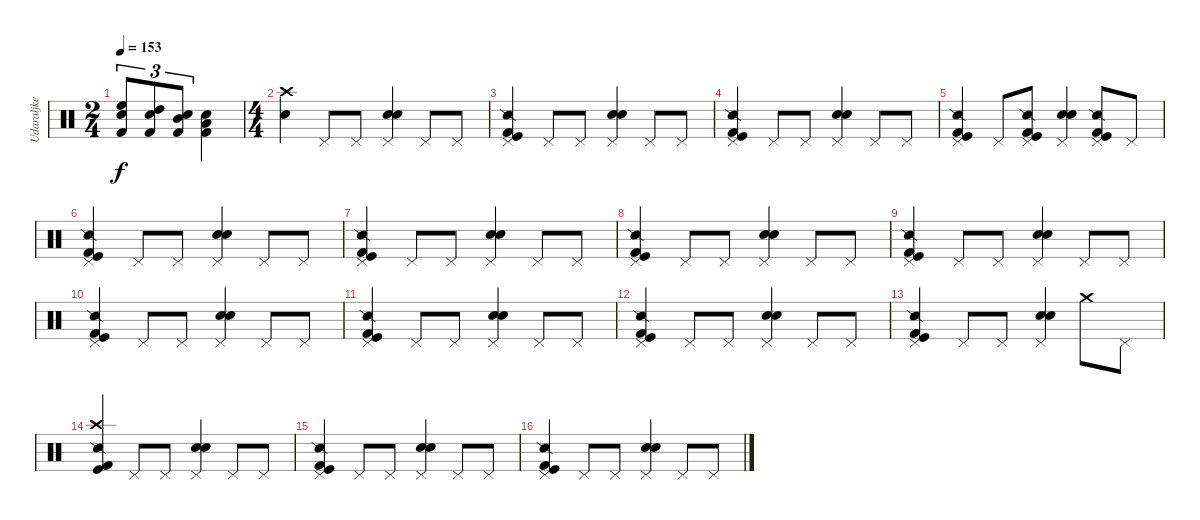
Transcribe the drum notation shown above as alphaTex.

\track ("Udaraljke" "Udaraljke") {instrument percussion}
\staff {score}
\articulation defaults
\ts (2 4)
\tempo 153
\clef neutral
\ks c
("Electric Snare (hit)" "High Floor Tom (hit)" "Kick (hit) 2").8{tu (3 2) dy f} ("Electric Snare (hit)" "High Tom (hit)" "Kick (hit) 2").8{tu (3 2)} ("Electric Snare (hit)" "Mid Tom (hit)" "Kick (hit) 2").8{tu (3 2)} ("Electric Snare (hit)" "Low Tom (hit)" "Kick (hit) 2").4 |
\ts (4 4)
("Crash high (hit)" "Snare (hit) 2").4 "Pedal Hi-Hat (hit)".8 "Pedal Hi-Hat (hit)".8 ("Pedal Hi-Hat (hit)" "Electric Snare (hit)" "Snare (hit) 2").4 "Pedal Hi-Hat (hit)".8 "Pedal Hi-Hat (hit)".8 |
("Pedal Hi-Hat (hit)" "Kick (hit) 2" "Kick (hit)" "Snare (side stick) 2").4 "Pedal Hi-Hat (hit)".8 "Pedal Hi-Hat (hit)".8 ("Pedal Hi-Hat (hit)" "Electric Snare (hit)" "Snare (hit) 2").4 "Pedal Hi-Hat (hit)".8 "Pedal Hi-Hat (hit)".8 |
("Pedal Hi-Hat (hit)" "Kick (hit) 2" "Kick (hit)" "Snare (side stick) 2").4 "Pedal Hi-Hat (hit)".8 "Pedal Hi-Hat (hit)".8 ("Pedal Hi-Hat (hit)" "Electric Snare (hit)" "Snare (hit) 2").4 "Pedal Hi-Hat (hit)".8 "Pedal Hi-Hat (hit)".8 |
("Pedal Hi-Hat (hit)" "Kick (hit) 2" "Kick (hit)" "Snare (side stick) 2").4 "Pedal Hi-Hat (hit)".8 ("Pedal Hi-Hat (hit)" "Kick (hit) 2" "Kick (hit)" "Snare (side stick) 2").8 ("Pedal Hi-Hat (hit)" "Electric Snare (hit)" "Snare (hit) 2").4 ("Pedal Hi-Hat (hit)" "Kick (hit) 2" "Kick (hit)" "Snare (side stick) 2").8 "Pedal Hi-Hat (hit)".8 |
("Pedal Hi-Hat (hit)" "Kick (hit) 2" "Kick (hit)" "Snare (side stick) 2").4 "Pedal Hi-Hat (hit)".8 "Pedal Hi-Hat (hit)".8 ("Pedal Hi-Hat (hit)" "Electric Snare (hit)" "Snare (hit) 2").4 "Pedal Hi-Hat (hit)".8 "Pedal Hi-Hat (hit)".8 |
("Pedal Hi-Hat (hit)" "Kick (hit) 2" "Kick (hit)" "Snare (side stick) 2").4 "Pedal Hi-Hat (hit)".8 "Pedal Hi-Hat (hit)".8 ("Pedal Hi-Hat (hit)" "Electric Snare (hit)" "Snare (hit) 2").4 "Pedal Hi-Hat (hit)".8 "Pedal Hi-Hat (hit)".8 |
("Pedal Hi-Hat (hit)" "Kick (hit) 2" "Kick (hit)" "Snare (side stick) 2").4 "Pedal Hi-Hat (hit)".8 "Pedal Hi-Hat (hit)".8 ("Pedal Hi-Hat (hit)" "Electric Snare (hit)" "Snare (hit) 2").4 "Pedal Hi-Hat (hit)".8 "Pedal Hi-Hat (hit)".8 |
("Pedal Hi-Hat (hit)" "Kick (hit) 2" "Kick (hit)" "Snare (side stick) 2").4 "Pedal Hi-Hat (hit)".8 "Pedal Hi-Hat (hit)".8 ("Pedal Hi-Hat (hit)" "Electric Snare (hit)" "Snare (hit) 2").4 "Pedal Hi-Hat (hit)".8 "Pedal Hi-Hat (hit)".8 |
("Pedal Hi-Hat (hit)" "Kick (hit) 2" "Kick (hit)" "Snare (side stick) 2").4 "Pedal Hi-Hat (hit)".8 "Pedal Hi-Hat (hit)".8 ("Pedal Hi-Hat (hit)" "Electric Snare (hit)" "Snare (hit) 2").4 "Pedal Hi-Hat (hit)".8 "Pedal Hi-Hat (hit)".8 |
("Pedal Hi-Hat (hit)" "Kick (hit) 2" "Kick (hit)" "Snare (side stick) 2").4 "Pedal Hi-Hat (hit)".8 "Pedal Hi-Hat (hit)".8 ("Pedal Hi-Hat (hit)" "Electric Snare (hit)" "Snare (hit) 2").4 "Pedal Hi-Hat (hit)".8 "Pedal Hi-Hat (hit)".8 |
("Pedal Hi-Hat (hit)" "Kick (hit) 2" "Kick (hit)" "Snare (side stick) 2").4 "Pedal Hi-Hat (hit)".8 "Pedal Hi-Hat (hit)".8 ("Pedal Hi-Hat (hit)" "Electric Snare (hit)" "Snare (hit) 2").4 "Pedal Hi-Hat (hit)".8 "Pedal Hi-Hat (hit)".8 |
("Pedal Hi-Hat (hit)" "Kick (hit) 2" "Kick (hit)" "Snare (side stick) 2").4 "Pedal Hi-Hat (hit)".8 "Pedal Hi-Hat (hit)".8 ("Pedal Hi-Hat (hit)" "Electric Snare (hit)" "Snare (hit) 2").4 "Crash medium (hit)".8 "Pedal Hi-Hat (hit)".8 |
("Crash high (hit)" "Kick (hit) 2" "Kick (hit)" "Snare (side stick) 2").4 "Pedal Hi-Hat (hit)".8 "Pedal Hi-Hat (hit)".8 ("Pedal Hi-Hat (hit)" "Electric Snare (hit)" "Snare (hit) 2").4 "Pedal Hi-Hat (hit)".8 "Pedal Hi-Hat (hit)".8 |
("Pedal Hi-Hat (hit)" "Kick (hit) 2" "Kick (hit)" "Snare (side stick) 2").4 "Pedal Hi-Hat (hit)".8 "Pedal Hi-Hat (hit)".8 ("Pedal Hi-Hat (hit)" "Electric Snare (hit)" "Snare (hit) 2").4 "Pedal Hi-Hat (hit)".8 "Pedal Hi-Hat (hit)".8 |
("Pedal Hi-Hat (hit)" "Kick (hit) 2" "Kick (hit)" "Snare (side stick) 2").4 "Pedal Hi-Hat (hit)".8 "Pedal Hi-Hat (hit)".8 ("Pedal Hi-Hat (hit)" "Electric Snare (hit)" "Snare (hit) 2").4 "Pedal Hi-Hat (hit)".8 "Pedal Hi-Hat (hit)".8
